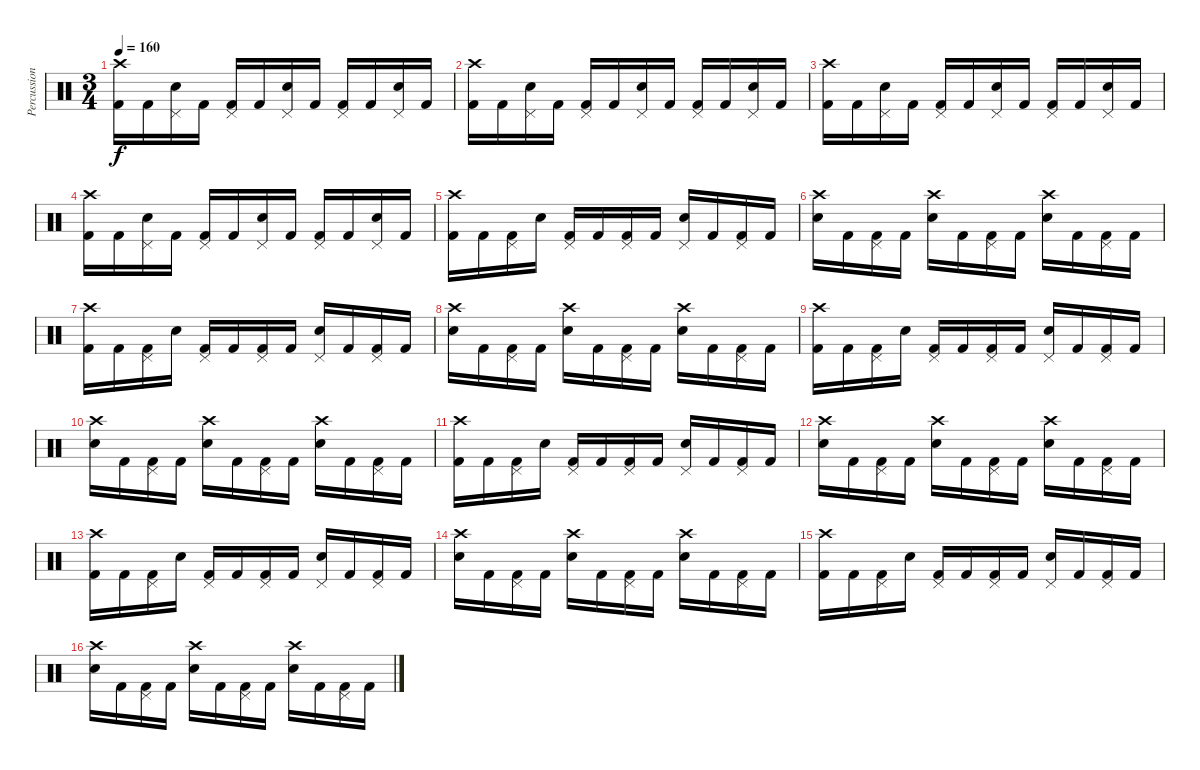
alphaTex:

\track ("Percussion" "Percussion") {instrument percussion}
\staff {score}
\articulation defaults
\ts (3 4)
\tempo 160
\clef neutral
\ks c
("Crash high (hit)" "Kick (hit) 2").16{dy f} "Kick (hit) 2".16 ("Pedal Hi-Hat (hit)" "Snare (hit) 2").16 "Kick (hit) 2".16 ("Pedal Hi-Hat (hit)" "Kick (hit) 2").16 "Kick (hit) 2".16 ("Pedal Hi-Hat (hit)" "Snare (hit) 2").16 "Kick (hit) 2".16 ("Pedal Hi-Hat (hit)" "Kick (hit) 2").16 "Kick (hit) 2".16 ("Pedal Hi-Hat (hit)" "Snare (hit) 2").16 "Kick (hit) 2".16 |
("Crash high (hit)" "Kick (hit) 2").16 "Kick (hit) 2".16 ("Pedal Hi-Hat (hit)" "Snare (hit) 2").16 "Kick (hit) 2".16 ("Pedal Hi-Hat (hit)" "Kick (hit) 2").16 "Kick (hit) 2".16 ("Pedal Hi-Hat (hit)" "Snare (hit) 2").16 "Kick (hit) 2".16 ("Pedal Hi-Hat (hit)" "Kick (hit) 2").16 "Kick (hit) 2".16 ("Pedal Hi-Hat (hit)" "Snare (hit) 2").16 "Kick (hit) 2".16 |
("Crash high (hit)" "Kick (hit) 2").16 "Kick (hit) 2".16 ("Pedal Hi-Hat (hit)" "Snare (hit) 2").16 "Kick (hit) 2".16 ("Pedal Hi-Hat (hit)" "Kick (hit) 2").16 "Kick (hit) 2".16 ("Pedal Hi-Hat (hit)" "Snare (hit) 2").16 "Kick (hit) 2".16 ("Pedal Hi-Hat (hit)" "Kick (hit) 2").16 "Kick (hit) 2".16 ("Pedal Hi-Hat (hit)" "Snare (hit) 2").16 "Kick (hit) 2".16 |
("Crash high (hit)" "Kick (hit) 2").16 "Kick (hit) 2".16 ("Pedal Hi-Hat (hit)" "Snare (hit) 2").16 "Kick (hit) 2".16 ("Pedal Hi-Hat (hit)" "Kick (hit) 2").16 "Kick (hit) 2".16 ("Pedal Hi-Hat (hit)" "Snare (hit) 2").16 "Kick (hit) 2".16 ("Pedal Hi-Hat (hit)" "Kick (hit) 2").16 "Kick (hit) 2".16 ("Pedal Hi-Hat (hit)" "Snare (hit) 2").16 "Kick (hit) 2".16 |
("Crash high (hit)" "Kick (hit) 2").16 "Kick (hit) 2".16 ("Pedal Hi-Hat (hit)" "Kick (hit) 2").16 "Snare (hit) 2".16 ("Pedal Hi-Hat (hit)" "Kick (hit) 2").16 "Kick (hit) 2".16 ("Pedal Hi-Hat (hit)" "Kick (hit) 2").16 "Kick (hit) 2".16 ("Pedal Hi-Hat (hit)" "Snare (hit) 2").16 "Kick (hit) 2".16 ("Pedal Hi-Hat (hit)" "Kick (hit) 2").16 "Kick (hit) 2".16 |
("Crash high (hit)" "Snare (hit) 2").16 "Kick (hit) 2".16 ("Pedal Hi-Hat (hit)" "Kick (hit) 2").16 "Kick (hit) 2".16 ("Crash high (hit)" "Snare (hit) 2").16 "Kick (hit) 2".16 ("Pedal Hi-Hat (hit)" "Kick (hit) 2").16 "Kick (hit) 2".16 ("Crash high (hit)" "Snare (hit) 2").16 "Kick (hit) 2".16 ("Pedal Hi-Hat (hit)" "Kick (hit) 2").16 "Kick (hit) 2".16 |
("Crash high (hit)" "Kick (hit) 2").16 "Kick (hit) 2".16 ("Pedal Hi-Hat (hit)" "Kick (hit) 2").16 "Snare (hit) 2".16 ("Pedal Hi-Hat (hit)" "Kick (hit) 2").16 "Kick (hit) 2".16 ("Pedal Hi-Hat (hit)" "Kick (hit) 2").16 "Kick (hit) 2".16 ("Pedal Hi-Hat (hit)" "Snare (hit) 2").16 "Kick (hit) 2".16 ("Pedal Hi-Hat (hit)" "Kick (hit) 2").16 "Kick (hit) 2".16 |
("Crash high (hit)" "Snare (hit) 2").16 "Kick (hit) 2".16 ("Pedal Hi-Hat (hit)" "Kick (hit) 2").16 "Kick (hit) 2".16 ("Crash high (hit)" "Snare (hit) 2").16 "Kick (hit) 2".16 ("Pedal Hi-Hat (hit)" "Kick (hit) 2").16 "Kick (hit) 2".16 ("Crash high (hit)" "Snare (hit) 2").16 "Kick (hit) 2".16 ("Pedal Hi-Hat (hit)" "Kick (hit) 2").16 "Kick (hit) 2".16 |
("Crash high (hit)" "Kick (hit) 2").16 "Kick (hit) 2".16 ("Pedal Hi-Hat (hit)" "Kick (hit) 2").16 "Snare (hit) 2".16 ("Pedal Hi-Hat (hit)" "Kick (hit) 2").16 "Kick (hit) 2".16 ("Pedal Hi-Hat (hit)" "Kick (hit) 2").16 "Kick (hit) 2".16 ("Pedal Hi-Hat (hit)" "Snare (hit) 2").16 "Kick (hit) 2".16 ("Pedal Hi-Hat (hit)" "Kick (hit) 2").16 "Kick (hit) 2".16 |
("Crash high (hit)" "Snare (hit) 2").16 "Kick (hit) 2".16 ("Pedal Hi-Hat (hit)" "Kick (hit) 2").16 "Kick (hit) 2".16 ("Crash high (hit)" "Snare (hit) 2").16 "Kick (hit) 2".16 ("Pedal Hi-Hat (hit)" "Kick (hit) 2").16 "Kick (hit) 2".16 ("Crash high (hit)" "Snare (hit) 2").16 "Kick (hit) 2".16 ("Pedal Hi-Hat (hit)" "Kick (hit) 2").16 "Kick (hit) 2".16 |
("Crash high (hit)" "Kick (hit) 2").16 "Kick (hit) 2".16 ("Pedal Hi-Hat (hit)" "Kick (hit) 2").16 "Snare (hit) 2".16 ("Pedal Hi-Hat (hit)" "Kick (hit) 2").16 "Kick (hit) 2".16 ("Pedal Hi-Hat (hit)" "Kick (hit) 2").16 "Kick (hit) 2".16 ("Pedal Hi-Hat (hit)" "Snare (hit) 2").16 "Kick (hit) 2".16 ("Pedal Hi-Hat (hit)" "Kick (hit) 2").16 "Kick (hit) 2".16 |
("Crash high (hit)" "Snare (hit) 2").16 "Kick (hit) 2".16 ("Pedal Hi-Hat (hit)" "Kick (hit) 2").16 "Kick (hit) 2".16 ("Crash high (hit)" "Snare (hit) 2").16 "Kick (hit) 2".16 ("Pedal Hi-Hat (hit)" "Kick (hit) 2").16 "Kick (hit) 2".16 ("Crash high (hit)" "Snare (hit) 2").16 "Kick (hit) 2".16 ("Pedal Hi-Hat (hit)" "Kick (hit) 2").16 "Kick (hit) 2".16 |
("Crash high (hit)" "Kick (hit) 2").16 "Kick (hit) 2".16 ("Pedal Hi-Hat (hit)" "Kick (hit) 2").16 "Snare (hit) 2".16 ("Pedal Hi-Hat (hit)" "Kick (hit) 2").16 "Kick (hit) 2".16 ("Pedal Hi-Hat (hit)" "Kick (hit) 2").16 "Kick (hit) 2".16 ("Pedal Hi-Hat (hit)" "Snare (hit) 2").16 "Kick (hit) 2".16 ("Pedal Hi-Hat (hit)" "Kick (hit) 2").16 "Kick (hit) 2".16 |
("Crash high (hit)" "Snare (hit) 2").16 "Kick (hit) 2".16 ("Pedal Hi-Hat (hit)" "Kick (hit) 2").16 "Kick (hit) 2".16 ("Crash high (hit)" "Snare (hit) 2").16 "Kick (hit) 2".16 ("Pedal Hi-Hat (hit)" "Kick (hit) 2").16 "Kick (hit) 2".16 ("Crash high (hit)" "Snare (hit) 2").16 "Kick (hit) 2".16 ("Pedal Hi-Hat (hit)" "Kick (hit) 2").16 "Kick (hit) 2".16 |
("Crash high (hit)" "Kick (hit) 2").16 "Kick (hit) 2".16 ("Pedal Hi-Hat (hit)" "Kick (hit) 2").16 "Snare (hit) 2".16 ("Pedal Hi-Hat (hit)" "Kick (hit) 2").16 "Kick (hit) 2".16 ("Pedal Hi-Hat (hit)" "Kick (hit) 2").16 "Kick (hit) 2".16 ("Pedal Hi-Hat (hit)" "Snare (hit) 2").16 "Kick (hit) 2".16 ("Pedal Hi-Hat (hit)" "Kick (hit) 2").16 "Kick (hit) 2".16 |
("Crash high (hit)" "Snare (hit) 2").16 "Kick (hit) 2".16 ("Pedal Hi-Hat (hit)" "Kick (hit) 2").16 "Kick (hit) 2".16 ("Crash high (hit)" "Snare (hit) 2").16 "Kick (hit) 2".16 ("Pedal Hi-Hat (hit)" "Kick (hit) 2").16 "Kick (hit) 2".16 ("Crash high (hit)" "Snare (hit) 2").16 "Kick (hit) 2".16 ("Pedal Hi-Hat (hit)" "Kick (hit) 2").16 "Kick (hit) 2".16
